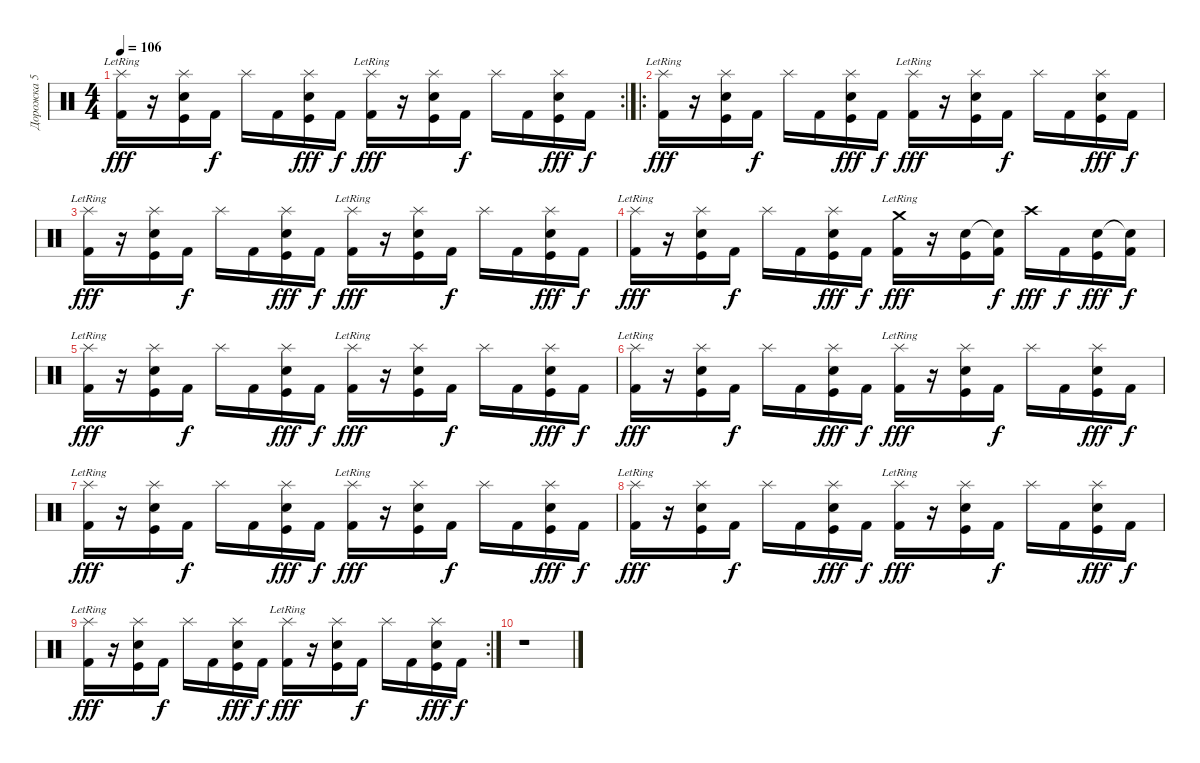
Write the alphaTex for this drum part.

\track ("Дорожка 5" "Дорожка 5") {instrument percussion}
\staff {score}
\articulation defaults
\rc 2
\ts (4 4)
\tempo 106
\clef neutral
\ks c
("Splash (hit)"{lr} "Kick (hit) 2").16{dy fff} r.16 ("Splash (hit)"{pm} "Electric Snare (hit)" "Kick (hit)").16 "Kick (hit) 2".16{dy f} "Splash (hit)"{pm}.16 "Kick (hit) 2".16 ("Splash (hit)"{pm} "Electric Snare (hit)" "Kick (hit)").16{dy fff} "Kick (hit) 2".16{dy f} ("Splash (hit)"{lr} "Kick (hit) 2").16{dy fff} r.16 ("Splash (hit)"{pm} "Electric Snare (hit)" "Kick (hit)").16 "Kick (hit) 2".16{dy f} "Splash (hit)"{pm}.16 "Kick (hit) 2".16 ("Splash (hit)"{pm} "Electric Snare (hit)" "Kick (hit)").16{dy fff} "Kick (hit) 2".16{dy f} |
\ro
("Splash (hit)"{lr} "Kick (hit) 2").16{dy fff} r.16 ("Splash (hit)"{pm} "Electric Snare (hit)" "Kick (hit)").16 "Kick (hit) 2".16{dy f} "Splash (hit)"{pm}.16 "Kick (hit) 2".16 ("Splash (hit)"{pm} "Electric Snare (hit)" "Kick (hit)").16{dy fff} "Kick (hit) 2".16{dy f} ("Splash (hit)"{lr} "Kick (hit) 2").16{dy fff} r.16 ("Splash (hit)"{pm} "Electric Snare (hit)" "Kick (hit)").16 "Kick (hit) 2".16{dy f} "Splash (hit)"{pm}.16 "Kick (hit) 2".16 ("Splash (hit)"{pm} "Electric Snare (hit)" "Kick (hit)").16{dy fff} "Kick (hit) 2".16{dy f} |
("Splash (hit)"{lr} "Kick (hit) 2").16{dy fff} r.16 ("Splash (hit)"{pm} "Electric Snare (hit)" "Kick (hit)").16 "Kick (hit) 2".16{dy f} "Splash (hit)"{pm}.16 "Kick (hit) 2".16 ("Splash (hit)"{pm} "Electric Snare (hit)" "Kick (hit)").16{dy fff} "Kick (hit) 2".16{dy f} ("Splash (hit)"{lr} "Kick (hit) 2").16{dy fff} r.16 ("Splash (hit)"{pm} "Electric Snare (hit)" "Kick (hit)").16 "Kick (hit) 2".16{dy f} "Splash (hit)"{pm}.16 "Kick (hit) 2".16 ("Splash (hit)"{pm} "Electric Snare (hit)" "Kick (hit)").16{dy fff} "Kick (hit) 2".16{dy f} |
("Splash (hit)"{lr} "Kick (hit) 2").16{dy fff} r.16 ("Splash (hit)"{pm} "Electric Snare (hit)" "Kick (hit)").16 "Kick (hit) 2".16{dy f} "Splash (hit)"{pm}.16 "Kick (hit) 2".16 ("Splash (hit)"{pm} "Electric Snare (hit)" "Kick (hit)").16{dy fff} "Kick (hit) 2".16{dy f} ("Crash medium (hit)"{lr} "Kick (hit) 2").16{dy fff} r.16 ("Electric Snare (hit)" "Kick (hit)").16 ("Snare (hit)"{t} "Kick (hit) 2").16{dy f} "Crash high (hit)"{pm}.16{dy fff} "Kick (hit) 2".16{dy f} ("Electric Snare (hit)" "Kick (hit)").16{dy fff} ("Snare (hit)"{t} "Kick (hit) 2").16{dy f} |
("Splash (hit)"{lr} "Kick (hit) 2").16{dy fff} r.16 ("Splash (hit)"{pm} "Electric Snare (hit)" "Kick (hit)").16 "Kick (hit) 2".16{dy f} "Splash (hit)"{pm}.16 "Kick (hit) 2".16 ("Splash (hit)"{pm} "Electric Snare (hit)" "Kick (hit)").16{dy fff} "Kick (hit) 2".16{dy f} ("Splash (hit)"{lr} "Kick (hit) 2").16{dy fff} r.16 ("Splash (hit)"{pm} "Electric Snare (hit)" "Kick (hit)").16 "Kick (hit) 2".16{dy f} "Splash (hit)"{pm}.16 "Kick (hit) 2".16 ("Splash (hit)"{pm} "Electric Snare (hit)" "Kick (hit)").16{dy fff} "Kick (hit) 2".16{dy f} |
("Splash (hit)"{lr} "Kick (hit) 2").16{dy fff} r.16 ("Splash (hit)"{pm} "Electric Snare (hit)" "Kick (hit)").16 "Kick (hit) 2".16{dy f} "Splash (hit)"{pm}.16 "Kick (hit) 2".16 ("Splash (hit)"{pm} "Electric Snare (hit)" "Kick (hit)").16{dy fff} "Kick (hit) 2".16{dy f} ("Splash (hit)"{lr} "Kick (hit) 2").16{dy fff} r.16 ("Splash (hit)"{pm} "Electric Snare (hit)" "Kick (hit)").16 "Kick (hit) 2".16{dy f} "Splash (hit)"{pm}.16 "Kick (hit) 2".16 ("Splash (hit)"{pm} "Electric Snare (hit)" "Kick (hit)").16{dy fff} "Kick (hit) 2".16{dy f} |
("Splash (hit)"{lr} "Kick (hit) 2").16{dy fff} r.16 ("Splash (hit)"{pm} "Electric Snare (hit)" "Kick (hit)").16 "Kick (hit) 2".16{dy f} "Splash (hit)"{pm}.16 "Kick (hit) 2".16 ("Splash (hit)"{pm} "Electric Snare (hit)" "Kick (hit)").16{dy fff} "Kick (hit) 2".16{dy f} ("Splash (hit)"{lr} "Kick (hit) 2").16{dy fff} r.16 ("Splash (hit)"{pm} "Electric Snare (hit)" "Kick (hit)").16 "Kick (hit) 2".16{dy f} "Splash (hit)"{pm}.16 "Kick (hit) 2".16 ("Splash (hit)"{pm} "Electric Snare (hit)" "Kick (hit)").16{dy fff} "Kick (hit) 2".16{dy f} |
("Splash (hit)"{lr} "Kick (hit) 2").16{dy fff} r.16 ("Splash (hit)"{pm} "Electric Snare (hit)" "Kick (hit)").16 "Kick (hit) 2".16{dy f} "Splash (hit)"{pm}.16 "Kick (hit) 2".16 ("Splash (hit)"{pm} "Electric Snare (hit)" "Kick (hit)").16{dy fff} "Kick (hit) 2".16{dy f} ("Splash (hit)"{lr} "Kick (hit) 2").16{dy fff} r.16 ("Splash (hit)"{pm} "Electric Snare (hit)" "Kick (hit)").16 "Kick (hit) 2".16{dy f} "Splash (hit)"{pm}.16 "Kick (hit) 2".16 ("Splash (hit)"{pm} "Electric Snare (hit)" "Kick (hit)").16{dy fff} "Kick (hit) 2".16{dy f} |
\rc 2
("Splash (hit)"{lr} "Kick (hit) 2").16{dy fff} r.16 ("Splash (hit)"{pm} "Electric Snare (hit)" "Kick (hit)").16 "Kick (hit) 2".16{dy f} "Splash (hit)"{pm}.16 "Kick (hit) 2".16 ("Splash (hit)"{pm} "Electric Snare (hit)" "Kick (hit)").16{dy fff} "Kick (hit) 2".16{dy f} ("Splash (hit)"{lr} "Kick (hit) 2").16{dy fff} r.16 ("Splash (hit)"{pm} "Electric Snare (hit)" "Kick (hit)").16 "Kick (hit) 2".16{dy f} "Splash (hit)"{pm}.16 "Kick (hit) 2".16 ("Splash (hit)"{pm} "Electric Snare (hit)" "Kick (hit)").16{dy fff} "Kick (hit) 2".16{dy f} |
r.1
